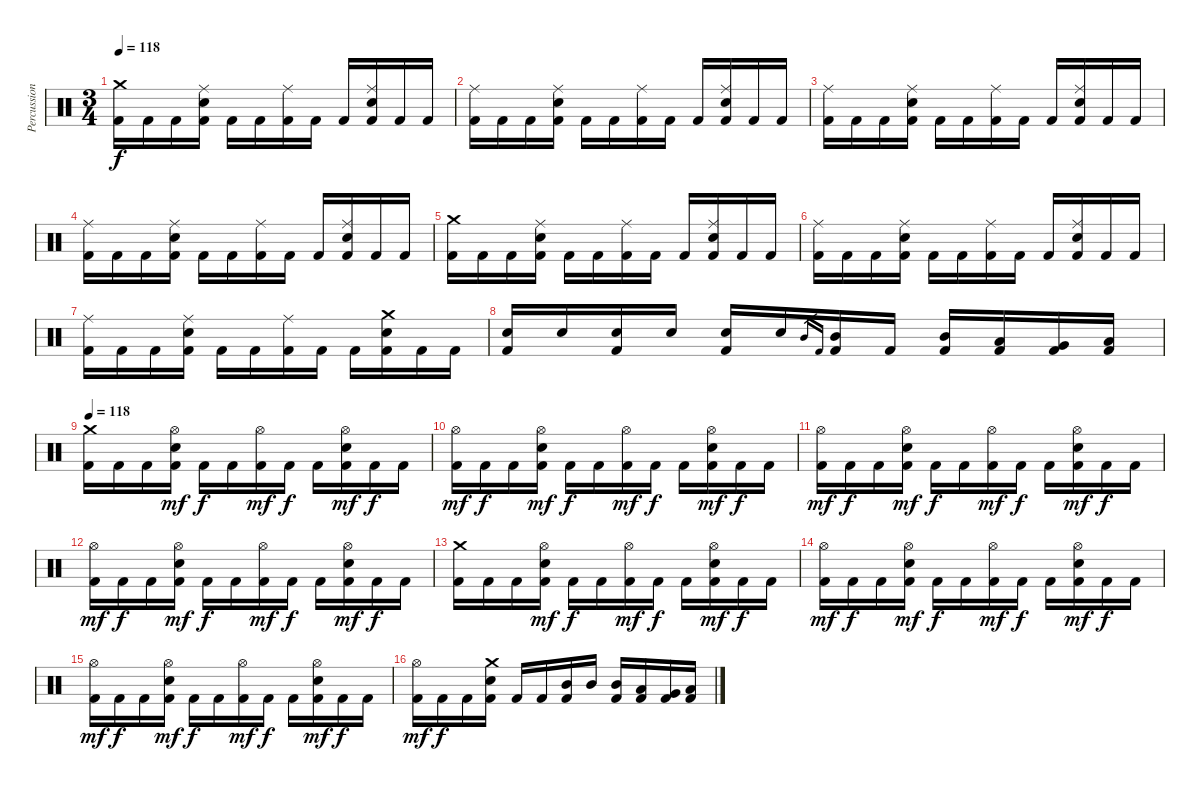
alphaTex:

\track ("Percussion" "Percussion") {instrument percussion}
\staff {score}
\articulation defaults
\ts (3 4)
\tempo 118
\clef neutral
\ks c
("Crash medium (hit)" "Kick (hit) 2").16{dy f} "Kick (hit) 2".16 "Kick (hit) 2".16 ("Ride (middle)" "Electric Snare (hit)" "Kick (hit) 2").16 "Kick (hit) 2".16 "Kick (hit) 2".16 ("Ride (middle)" "Kick (hit) 2").16 "Kick (hit) 2".16 "Kick (hit) 2".16 ("Ride (middle)" "Electric Snare (hit)" "Kick (hit) 2").16 "Kick (hit) 2".16 "Kick (hit) 2".16 |
("Ride (middle)" "Kick (hit) 2").16 "Kick (hit) 2".16 "Kick (hit) 2".16 ("Ride (middle)" "Electric Snare (hit)" "Kick (hit) 2").16 "Kick (hit) 2".16 "Kick (hit) 2".16 ("Ride (middle)" "Kick (hit) 2").16 "Kick (hit) 2".16 "Kick (hit) 2".16 ("Ride (middle)" "Electric Snare (hit)" "Kick (hit) 2").16 "Kick (hit) 2".16 "Kick (hit) 2".16 |
("Ride (middle)" "Kick (hit) 2").16 "Kick (hit) 2".16 "Kick (hit) 2".16 ("Ride (middle)" "Electric Snare (hit)" "Kick (hit) 2").16 "Kick (hit) 2".16 "Kick (hit) 2".16 ("Ride (middle)" "Kick (hit) 2").16 "Kick (hit) 2".16 "Kick (hit) 2".16 ("Ride (middle)" "Electric Snare (hit)" "Kick (hit) 2").16 "Kick (hit) 2".16 "Kick (hit) 2".16 |
("Ride (middle)" "Kick (hit) 2").16 "Kick (hit) 2".16 "Kick (hit) 2".16 ("Ride (middle)" "Electric Snare (hit)" "Kick (hit) 2").16 "Kick (hit) 2".16 "Kick (hit) 2".16 ("Ride (middle)" "Kick (hit) 2").16 "Kick (hit) 2".16 "Kick (hit) 2".16 ("Ride (middle)" "Electric Snare (hit)" "Kick (hit) 2").16 "Kick (hit) 2".16 "Kick (hit) 2".16 |
("Crash medium (hit)" "Kick (hit) 2").16 "Kick (hit) 2".16 "Kick (hit) 2".16 ("Ride (middle)" "Electric Snare (hit)" "Kick (hit) 2").16 "Kick (hit) 2".16 "Kick (hit) 2".16 ("Ride (middle)" "Kick (hit) 2").16 "Kick (hit) 2".16 "Kick (hit) 2".16 ("Ride (middle)" "Electric Snare (hit)" "Kick (hit) 2").16 "Kick (hit) 2".16 "Kick (hit) 2".16 |
("Ride (middle)" "Kick (hit) 2").16 "Kick (hit) 2".16 "Kick (hit) 2".16 ("Ride (middle)" "Electric Snare (hit)" "Kick (hit) 2").16 "Kick (hit) 2".16 "Kick (hit) 2".16 ("Ride (middle)" "Kick (hit) 2").16 "Kick (hit) 2".16 "Kick (hit) 2".16 ("Ride (middle)" "Electric Snare (hit)" "Kick (hit) 2").16 "Kick (hit) 2".16 "Kick (hit) 2".16 |
("Ride (middle)" "Kick (hit) 2").16 "Kick (hit) 2".16 "Kick (hit) 2".16 ("Ride (middle)" "Electric Snare (hit)" "Kick (hit) 2").16 "Kick (hit) 2".16 "Kick (hit) 2".16 ("Ride (middle)" "Kick (hit) 2").16 "Kick (hit) 2".16 "Kick (hit) 2".16 ("Crash medium (hit)" "Electric Snare (hit)" "Kick (hit) 2").16 "Kick (hit) 2".16 "Kick (hit) 2".16 |
("Electric Snare (hit)" "Kick (hit) 2").16 "Electric Snare (hit)".16 ("Electric Snare (hit)" "Kick (hit) 2").16 "Electric Snare (hit)".16 ("Electric Snare (hit)" "Kick (hit) 2").16 "Electric Snare (hit)".16 "Mid Tom (hit)".16{gr} "Kick (hit) 2".16{gr} ("Mid Tom (hit)" "Kick (hit) 2").16 "Kick (hit) 2".16 ("Mid Tom (hit)" "Kick (hit) 2").16 ("Low Tom (hit)" "Kick (hit) 2").16 ("Very Low Tom (hit)" "Kick (hit) 2").16 ("Low Floor Tom (hit)" "Kick (hit) 2").16 |
\tempo 118
("Crash medium (hit)" "Kick (hit) 2").16 "Kick (hit) 2".16 "Kick (hit) 2".16 ("Hi-Hat (open)" "Electric Snare (hit)" "Kick (hit) 2").16{dy mf} "Kick (hit) 2".16{dy f} "Kick (hit) 2".16 ("Hi-Hat (open)" "Kick (hit) 2").16{dy mf} "Kick (hit) 2".16{dy f} "Kick (hit) 2".16 ("Hi-Hat (open)" "Electric Snare (hit)" "Kick (hit) 2").16{dy mf} "Kick (hit) 2".16{dy f} "Kick (hit) 2".16 |
("Hi-Hat (open)" "Kick (hit) 2").16{dy mf} "Kick (hit) 2".16{dy f} "Kick (hit) 2".16 ("Hi-Hat (open)" "Electric Snare (hit)" "Kick (hit) 2").16{dy mf} "Kick (hit) 2".16{dy f} "Kick (hit) 2".16 ("Hi-Hat (open)" "Kick (hit) 2").16{dy mf} "Kick (hit) 2".16{dy f} "Kick (hit) 2".16 ("Hi-Hat (open)" "Electric Snare (hit)" "Kick (hit) 2").16{dy mf} "Kick (hit) 2".16{dy f} "Kick (hit) 2".16 |
("Hi-Hat (open)" "Kick (hit) 2").16{dy mf} "Kick (hit) 2".16{dy f} "Kick (hit) 2".16 ("Hi-Hat (open)" "Electric Snare (hit)" "Kick (hit) 2").16{dy mf} "Kick (hit) 2".16{dy f} "Kick (hit) 2".16 ("Hi-Hat (open)" "Kick (hit) 2").16{dy mf} "Kick (hit) 2".16{dy f} "Kick (hit) 2".16 ("Hi-Hat (open)" "Electric Snare (hit)" "Kick (hit) 2").16{dy mf} "Kick (hit) 2".16{dy f} "Kick (hit) 2".16 |
("Hi-Hat (open)" "Kick (hit) 2").16{dy mf} "Kick (hit) 2".16{dy f} "Kick (hit) 2".16 ("Hi-Hat (open)" "Electric Snare (hit)" "Kick (hit) 2").16{dy mf} "Kick (hit) 2".16{dy f} "Kick (hit) 2".16 ("Hi-Hat (open)" "Kick (hit) 2").16{dy mf} "Kick (hit) 2".16{dy f} "Kick (hit) 2".16 ("Hi-Hat (open)" "Electric Snare (hit)" "Kick (hit) 2").16{dy mf} "Kick (hit) 2".16{dy f} "Kick (hit) 2".16 |
("Crash medium (hit)" "Kick (hit) 2").16 "Kick (hit) 2".16 "Kick (hit) 2".16 ("Hi-Hat (open)" "Electric Snare (hit)" "Kick (hit) 2").16{dy mf} "Kick (hit) 2".16{dy f} "Kick (hit) 2".16 ("Hi-Hat (open)" "Kick (hit) 2").16{dy mf} "Kick (hit) 2".16{dy f} "Kick (hit) 2".16 ("Hi-Hat (open)" "Electric Snare (hit)" "Kick (hit) 2").16{dy mf} "Kick (hit) 2".16{dy f} "Kick (hit) 2".16 |
("Hi-Hat (open)" "Kick (hit) 2").16{dy mf} "Kick (hit) 2".16{dy f} "Kick (hit) 2".16 ("Hi-Hat (open)" "Electric Snare (hit)" "Kick (hit) 2").16{dy mf} "Kick (hit) 2".16{dy f} "Kick (hit) 2".16 ("Hi-Hat (open)" "Kick (hit) 2").16{dy mf} "Kick (hit) 2".16{dy f} "Kick (hit) 2".16 ("Hi-Hat (open)" "Electric Snare (hit)" "Kick (hit) 2").16{dy mf} "Kick (hit) 2".16{dy f} "Kick (hit) 2".16 |
("Hi-Hat (open)" "Kick (hit) 2").16{dy mf} "Kick (hit) 2".16{dy f} "Kick (hit) 2".16 ("Hi-Hat (open)" "Electric Snare (hit)" "Kick (hit) 2").16{dy mf} "Kick (hit) 2".16{dy f} "Kick (hit) 2".16 ("Hi-Hat (open)" "Kick (hit) 2").16{dy mf} "Kick (hit) 2".16{dy f} "Kick (hit) 2".16 ("Hi-Hat (open)" "Electric Snare (hit)" "Kick (hit) 2").16{dy mf} "Kick (hit) 2".16{dy f} "Kick (hit) 2".16 |
("Hi-Hat (open)" "Kick (hit) 2").16{dy mf} "Kick (hit) 2".16{dy f} "Kick (hit) 2".16 ("Crash medium (hit)" "Electric Snare (hit)" "Kick (hit) 2").16 "Kick (hit) 2".16 "Kick (hit) 2".16 ("Mid Tom (hit)" "Kick (hit) 2").16 "Mid Tom (hit)".16 ("Mid Tom (hit)" "Kick (hit) 2").16 ("Low Tom (hit)" "Kick (hit) 2").16 ("Very Low Tom (hit)" "Kick (hit) 2").16 ("Low Floor Tom (hit)" "Kick (hit) 2").16
